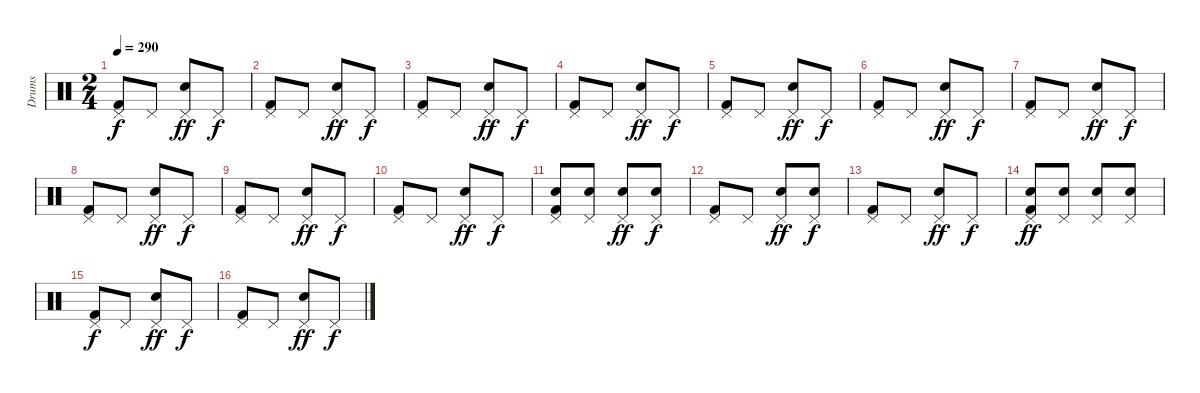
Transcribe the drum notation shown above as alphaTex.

\track ("Drums" "Drums") {instrument percussion}
\staff {score}
\articulation defaults
\ts (2 4)
\tempo 290
\clef neutral
\ks c
("Pedal Hi-Hat (hit)" "Kick (hit) 2").8{dy f} "Pedal Hi-Hat (hit)".8 ("Pedal Hi-Hat (hit)" "Electric Snare (hit)").8{dy ff} "Pedal Hi-Hat (hit)".8{dy f} |
("Pedal Hi-Hat (hit)" "Kick (hit) 2").8 "Pedal Hi-Hat (hit)".8 ("Pedal Hi-Hat (hit)" "Electric Snare (hit)").8{dy ff} "Pedal Hi-Hat (hit)".8{dy f} |
("Pedal Hi-Hat (hit)" "Kick (hit) 2").8 "Pedal Hi-Hat (hit)".8 ("Pedal Hi-Hat (hit)" "Electric Snare (hit)").8{dy ff} "Pedal Hi-Hat (hit)".8{dy f} |
("Pedal Hi-Hat (hit)" "Kick (hit) 2").8 "Pedal Hi-Hat (hit)".8 ("Pedal Hi-Hat (hit)" "Electric Snare (hit)").8{dy ff} "Pedal Hi-Hat (hit)".8{dy f} |
("Pedal Hi-Hat (hit)" "Kick (hit) 2").8 "Pedal Hi-Hat (hit)".8 ("Pedal Hi-Hat (hit)" "Electric Snare (hit)").8{dy ff} "Pedal Hi-Hat (hit)".8{dy f} |
("Pedal Hi-Hat (hit)" "Kick (hit) 2").8 "Pedal Hi-Hat (hit)".8 ("Pedal Hi-Hat (hit)" "Electric Snare (hit)").8{dy ff} "Pedal Hi-Hat (hit)".8{dy f} |
("Pedal Hi-Hat (hit)" "Kick (hit) 2").8 "Pedal Hi-Hat (hit)".8 ("Pedal Hi-Hat (hit)" "Electric Snare (hit)").8{dy ff} "Pedal Hi-Hat (hit)".8{dy f} |
("Pedal Hi-Hat (hit)" "Kick (hit) 2").8 "Pedal Hi-Hat (hit)".8 ("Pedal Hi-Hat (hit)" "Electric Snare (hit)").8{dy ff} "Pedal Hi-Hat (hit)".8{dy f} |
("Pedal Hi-Hat (hit)" "Kick (hit) 2").8 "Pedal Hi-Hat (hit)".8 ("Pedal Hi-Hat (hit)" "Electric Snare (hit)").8{dy ff} "Pedal Hi-Hat (hit)".8{dy f} |
("Pedal Hi-Hat (hit)" "Kick (hit) 2").8 "Pedal Hi-Hat (hit)".8 ("Pedal Hi-Hat (hit)" "Electric Snare (hit)").8{dy ff} "Pedal Hi-Hat (hit)".8{dy f} |
("Pedal Hi-Hat (hit)" "Electric Snare (hit)" "Kick (hit) 2").8 ("Pedal Hi-Hat (hit)" "Electric Snare (hit)").8 ("Pedal Hi-Hat (hit)" "Electric Snare (hit)").8{dy ff} ("Pedal Hi-Hat (hit)" "Electric Snare (hit)").8{dy f} |
("Pedal Hi-Hat (hit)" "Kick (hit) 2").8 "Pedal Hi-Hat (hit)".8 ("Pedal Hi-Hat (hit)" "Electric Snare (hit)").8{dy ff} ("Pedal Hi-Hat (hit)" "Electric Snare (hit)").8{dy f} |
("Pedal Hi-Hat (hit)" "Kick (hit) 2").8 "Pedal Hi-Hat (hit)".8 ("Pedal Hi-Hat (hit)" "Electric Snare (hit)").8{dy ff} "Pedal Hi-Hat (hit)".8{dy f} |
("Pedal Hi-Hat (hit)" "Electric Snare (hit)" "Kick (hit) 2").8{dy ff} ("Pedal Hi-Hat (hit)" "Electric Snare (hit)").8 ("Pedal Hi-Hat (hit)" "Electric Snare (hit)").8 ("Pedal Hi-Hat (hit)" "Electric Snare (hit)").8 |
("Pedal Hi-Hat (hit)" "Kick (hit) 2").8{dy f} "Pedal Hi-Hat (hit)".8 ("Pedal Hi-Hat (hit)" "Electric Snare (hit)").8{dy ff} "Pedal Hi-Hat (hit)".8{dy f} |
("Pedal Hi-Hat (hit)" "Kick (hit) 2").8 "Pedal Hi-Hat (hit)".8 ("Pedal Hi-Hat (hit)" "Electric Snare (hit)").8{dy ff} "Pedal Hi-Hat (hit)".8{dy f}
